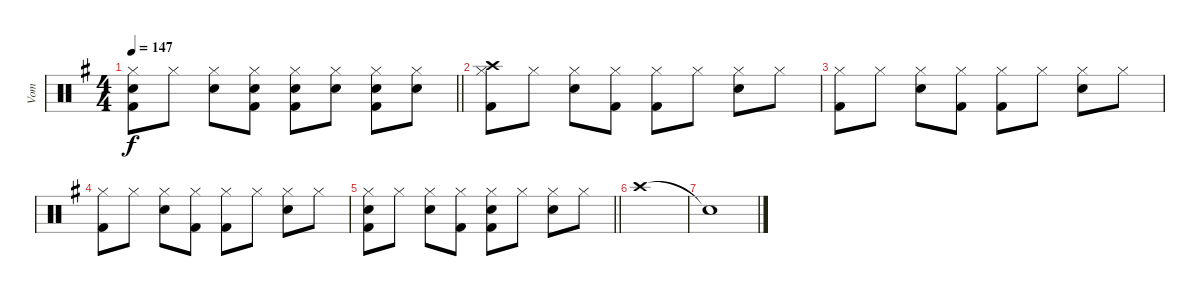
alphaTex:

\track ("Vom" "Vom") {instrument percussion}
\staff {score}
\articulation defaults
\ts (4 4)
\tempo 147
\clef neutral
\barLineRight lightlight
\ks g
("Hi-Hat (closed)" "Snare (hit) 2" "Kick (hit) 2").8{dy f} "Hi-Hat (closed)".8 ("Hi-Hat (closed)" "Snare (hit) 2").8 ("Hi-Hat (closed)" "Snare (hit) 2" "Kick (hit) 2").8 ("Hi-Hat (closed)" "Snare (hit) 2" "Kick (hit) 2").8 ("Hi-Hat (closed)" "Snare (hit) 2").8 ("Hi-Hat (closed)" "Snare (hit) 2" "Kick (hit) 2").8 ("Hi-Hat (closed)" "Snare (hit) 2").8 |
("Crash high (hit)" "Hi-Hat (closed)" "Kick (hit) 2").8 "Hi-Hat (closed)".8 ("Hi-Hat (closed)" "Snare (hit) 2").8 ("Hi-Hat (closed)" "Kick (hit) 2").8 ("Hi-Hat (closed)" "Kick (hit) 2").8 "Hi-Hat (closed)".8 ("Hi-Hat (closed)" "Snare (hit) 2").8 "Hi-Hat (closed)".8 |
("Hi-Hat (closed)" "Kick (hit) 2").8 "Hi-Hat (closed)".8 ("Hi-Hat (closed)" "Snare (hit) 2").8 ("Hi-Hat (closed)" "Kick (hit) 2").8 ("Hi-Hat (closed)" "Kick (hit) 2").8 "Hi-Hat (closed)".8 ("Hi-Hat (closed)" "Snare (hit) 2").8 "Hi-Hat (closed)".8 |
("Hi-Hat (closed)" "Kick (hit) 2").8 "Hi-Hat (closed)".8 ("Hi-Hat (closed)" "Snare (hit) 2").8 ("Hi-Hat (closed)" "Kick (hit) 2").8 ("Hi-Hat (closed)" "Kick (hit) 2").8 "Hi-Hat (closed)".8 ("Hi-Hat (closed)" "Snare (hit) 2").8 "Hi-Hat (closed)".8 |
\barLineRight lightlight
("Hi-Hat (closed)" "Snare (hit) 2" "Kick (hit) 2").8 "Hi-Hat (closed)".8 ("Hi-Hat (closed)" "Snare (hit) 2").8 ("Hi-Hat (closed)" "Kick (hit) 2").8 ("Hi-Hat (closed)" "Snare (hit) 2" "Kick (hit) 2").8 "Hi-Hat (closed)".8 ("Hi-Hat (closed)" "Snare (hit) 2").8 "Hi-Hat (closed)".8 |
"Crash high (hit)".1 |
"Snare (hit)"{t}.1
